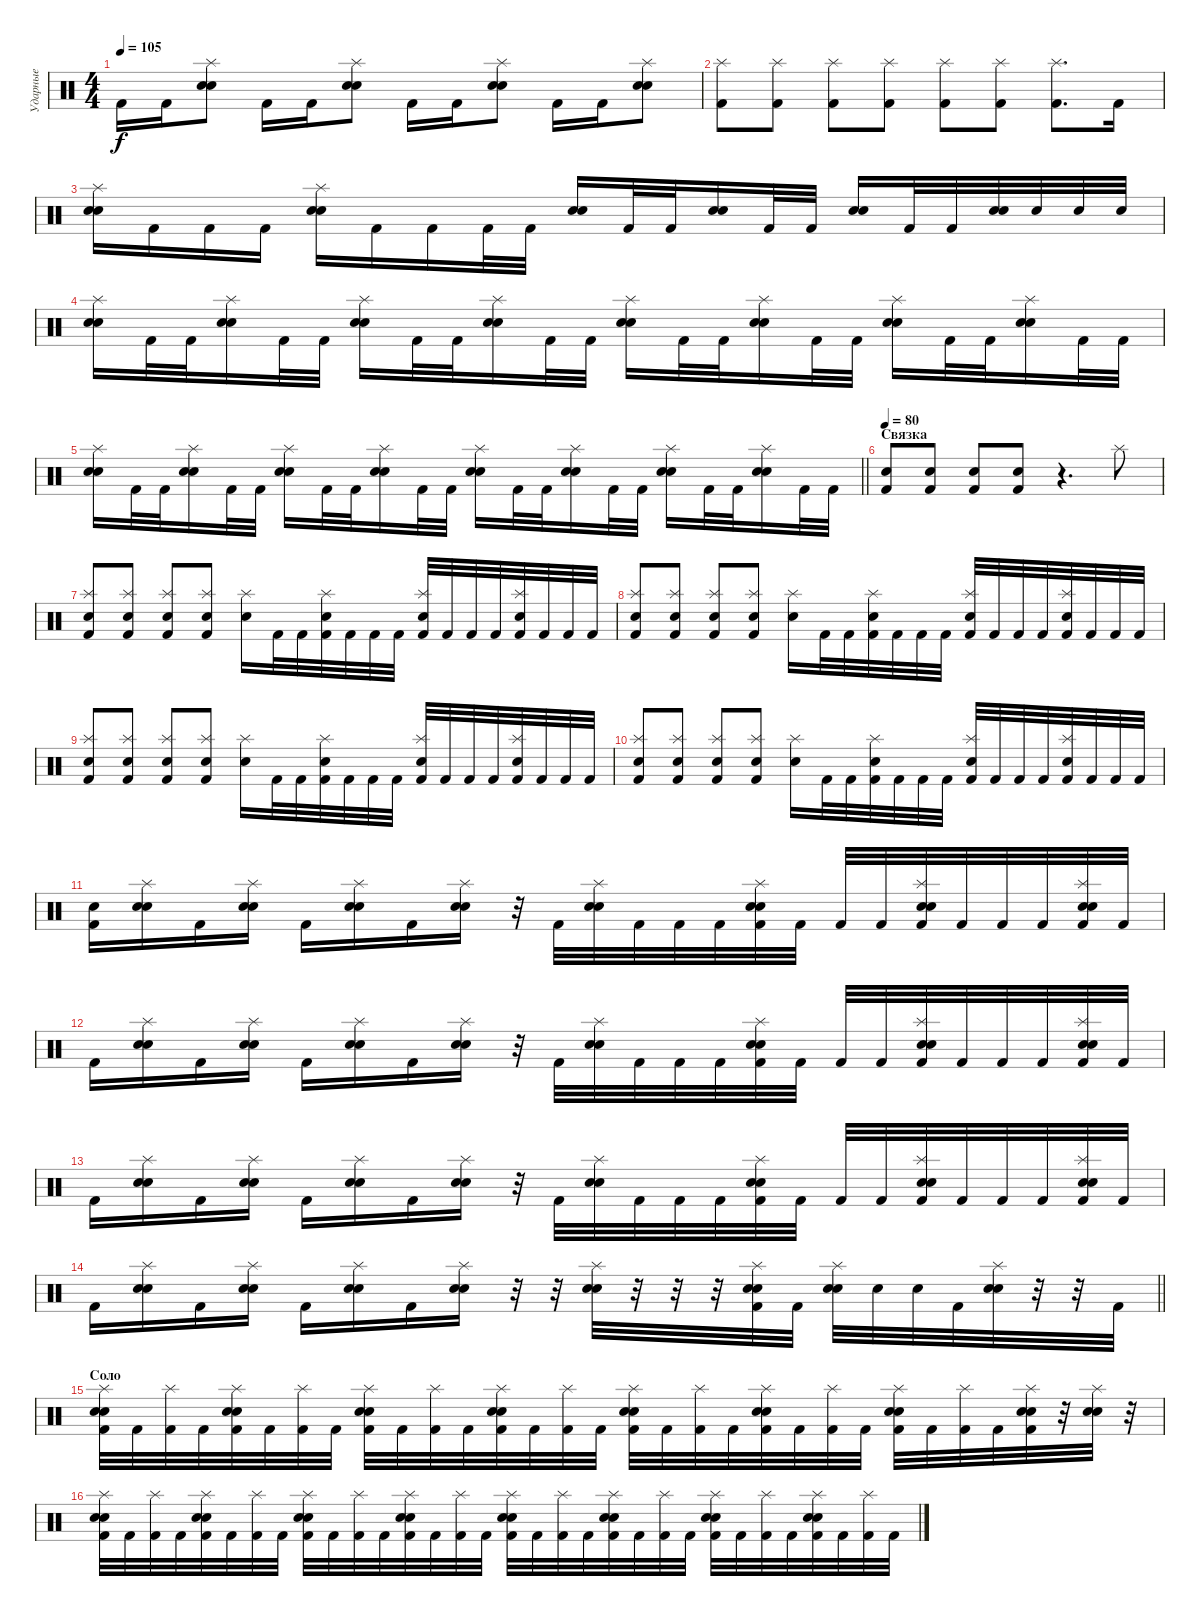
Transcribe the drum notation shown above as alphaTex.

\track ("Ударные" "Ударные") {instrument percussion}
\staff {score}
\articulation defaults
\ts (4 4)
\tempo 105
\clef neutral
\ks c "Kick (hit) 2".16{dy f} "Kick (hit) 2".16
("Splash (hit)" "Electric Snare (hit)" "Snare (hit) 2").8 "Kick (hit) 2".16 "Kick (hit) 2".16 ("Splash (hit)" "Electric Snare (hit)" "Snare (hit) 2").8 "Kick (hit) 2".16 "Kick (hit) 2".16 ("Splash (hit)" "Electric Snare (hit)" "Snare (hit) 2").8 "Kick (hit) 2".16 "Kick (hit) 2".16 ("Splash (hit)" "Electric Snare (hit)" "Snare (hit) 2").8 |
("Splash (hit)" "Kick (hit) 2").8 ("Splash (hit)" "Kick (hit) 2").8 ("Splash (hit)" "Kick (hit) 2").8 ("Splash (hit)" "Kick (hit) 2").8 ("Splash (hit)" "Kick (hit) 2").8 ("Splash (hit)" "Kick (hit) 2").8 ("Splash (hit)" "Kick (hit) 2").8{d} "Kick (hit) 2".16 |
("Splash (hit)" "Electric Snare (hit)" "Snare (hit) 2").16 "Kick (hit) 2".16 "Kick (hit) 2".16 "Kick (hit) 2".16 ("Splash (hit)" "Electric Snare (hit)" "Snare (hit) 2").16 "Kick (hit) 2".16 "Kick (hit) 2".16 "Kick (hit) 2".32 "Kick (hit) 2".32 ("Electric Snare (hit)" "Snare (hit) 2").16 "Kick (hit) 2".32 "Kick (hit) 2".32 ("Electric Snare (hit)" "Snare (hit) 2").16 "Kick (hit) 2".32 "Kick (hit) 2".32 ("Electric Snare (hit)" "Snare (hit) 2").16 "Kick (hit) 2".32 "Kick (hit) 2".32 ("Electric Snare (hit)" "Snare (hit) 2").32 "Electric Snare (hit)".32 "Electric Snare (hit)".32 "Electric Snare (hit)".32 |
("Splash (hit)" "Electric Snare (hit)" "Snare (hit) 2").16 "Kick (hit) 2".32 "Kick (hit) 2".32 ("Splash (hit)" "Electric Snare (hit)" "Snare (hit) 2").16 "Kick (hit) 2".32 "Kick (hit) 2".32 ("Splash (hit)" "Electric Snare (hit)" "Snare (hit) 2").16 "Kick (hit) 2".32 "Kick (hit) 2".32 ("Splash (hit)" "Electric Snare (hit)" "Snare (hit) 2").16 "Kick (hit) 2".32 "Kick (hit) 2".32 ("Splash (hit)" "Electric Snare (hit)" "Snare (hit) 2").16 "Kick (hit) 2".32 "Kick (hit) 2".32 ("Splash (hit)" "Electric Snare (hit)" "Snare (hit) 2").16 "Kick (hit) 2".32 "Kick (hit) 2".32 ("Splash (hit)" "Electric Snare (hit)" "Snare (hit) 2").16 "Kick (hit) 2".32 "Kick (hit) 2".32 ("Splash (hit)" "Electric Snare (hit)" "Snare (hit) 2").16 "Kick (hit) 2".32 "Kick (hit) 2".32 |
\barLineRight lightlight
("Splash (hit)" "Electric Snare (hit)" "Snare (hit) 2").16 "Kick (hit) 2".32 "Kick (hit) 2".32 ("Splash (hit)" "Electric Snare (hit)" "Snare (hit) 2").16 "Kick (hit) 2".32 "Kick (hit) 2".32 ("Splash (hit)" "Electric Snare (hit)" "Snare (hit) 2").16 "Kick (hit) 2".32 "Kick (hit) 2".32 ("Splash (hit)" "Electric Snare (hit)" "Snare (hit) 2").16 "Kick (hit) 2".32 "Kick (hit) 2".32 ("Splash (hit)" "Electric Snare (hit)" "Snare (hit) 2").16 "Kick (hit) 2".32 "Kick (hit) 2".32 ("Splash (hit)" "Electric Snare (hit)" "Snare (hit) 2").16 "Kick (hit) 2".32 "Kick (hit) 2".32 ("Splash (hit)" "Electric Snare (hit)" "Snare (hit) 2").16 "Kick (hit) 2".32 "Kick (hit) 2".32 ("Splash (hit)" "Electric Snare (hit)" "Snare (hit) 2").16 "Kick (hit) 2".32 "Kick (hit) 2".32 |
\section ("" "Связка")
\tempo 80
("Snare (hit) 2" "Kick (hit) 2").8 ("Snare (hit) 2" "Kick (hit) 2").8 ("Snare (hit) 2" "Kick (hit) 2").8 ("Snare (hit) 2" "Kick (hit) 2").8 r.4{d} "Splash (hit)".8 |
("Splash (hit)" "Hand Clap (hit)" "Kick (hit) 2").8 ("Splash (hit)" "Hand Clap (hit)" "Kick (hit) 2").8 ("Splash (hit)" "Hand Clap (hit)" "Kick (hit) 2").8 ("Splash (hit)" "Hand Clap (hit)" "Kick (hit) 2").8 ("Splash (hit)" "Hand Clap (hit)").16 "Kick (hit) 2".32 "Kick (hit) 2".32 ("Splash (hit)" "Hand Clap (hit)" "Kick (hit) 2").32 "Kick (hit) 2".32 "Kick (hit) 2".32 "Kick (hit) 2".32 ("Splash (hit)" "Hand Clap (hit)" "Kick (hit) 2").32 "Kick (hit) 2".32 "Kick (hit) 2".32 "Kick (hit) 2".32 ("Splash (hit)" "Hand Clap (hit)" "Kick (hit) 2").32 "Kick (hit) 2".32 "Kick (hit) 2".32 "Kick (hit) 2".32 |
("Splash (hit)" "Hand Clap (hit)" "Kick (hit) 2").8 ("Splash (hit)" "Hand Clap (hit)" "Kick (hit) 2").8 ("Splash (hit)" "Hand Clap (hit)" "Kick (hit) 2").8 ("Splash (hit)" "Hand Clap (hit)" "Kick (hit) 2").8 ("Splash (hit)" "Hand Clap (hit)").16 "Kick (hit) 2".32 "Kick (hit) 2".32 ("Splash (hit)" "Hand Clap (hit)" "Kick (hit) 2").32 "Kick (hit) 2".32 "Kick (hit) 2".32 "Kick (hit) 2".32 ("Splash (hit)" "Hand Clap (hit)" "Kick (hit) 2").32 "Kick (hit) 2".32 "Kick (hit) 2".32 "Kick (hit) 2".32 ("Splash (hit)" "Hand Clap (hit)" "Kick (hit) 2").32 "Kick (hit) 2".32 "Kick (hit) 2".32 "Kick (hit) 2".32 |
("Splash (hit)" "Hand Clap (hit)" "Kick (hit) 2").8 ("Splash (hit)" "Hand Clap (hit)" "Kick (hit) 2").8 ("Splash (hit)" "Hand Clap (hit)" "Kick (hit) 2").8 ("Splash (hit)" "Hand Clap (hit)" "Kick (hit) 2").8 ("Splash (hit)" "Hand Clap (hit)").16 "Kick (hit) 2".32 "Kick (hit) 2".32 ("Splash (hit)" "Hand Clap (hit)" "Kick (hit) 2").32 "Kick (hit) 2".32 "Kick (hit) 2".32 "Kick (hit) 2".32 ("Splash (hit)" "Hand Clap (hit)" "Kick (hit) 2").32 "Kick (hit) 2".32 "Kick (hit) 2".32 "Kick (hit) 2".32 ("Splash (hit)" "Hand Clap (hit)" "Kick (hit) 2").32 "Kick (hit) 2".32 "Kick (hit) 2".32 "Kick (hit) 2".32 |
("Splash (hit)" "Hand Clap (hit)" "Kick (hit) 2").8 ("Splash (hit)" "Hand Clap (hit)" "Kick (hit) 2").8 ("Splash (hit)" "Hand Clap (hit)" "Kick (hit) 2").8 ("Splash (hit)" "Hand Clap (hit)" "Kick (hit) 2").8 ("Splash (hit)" "Hand Clap (hit)").16 "Kick (hit) 2".32 "Kick (hit) 2".32 ("Splash (hit)" "Hand Clap (hit)" "Kick (hit) 2").32 "Kick (hit) 2".32 "Kick (hit) 2".32 "Kick (hit) 2".32 ("Splash (hit)" "Hand Clap (hit)" "Kick (hit) 2").32 "Kick (hit) 2".32 "Kick (hit) 2".32 "Kick (hit) 2".32 ("Splash (hit)" "Hand Clap (hit)" "Kick (hit) 2").32 "Kick (hit) 2".32 "Kick (hit) 2".32 "Kick (hit) 2".32 |
("Hand Clap (hit)" "Kick (hit) 2").16 ("Splash (hit)" "Electric Snare (hit)" "Snare (hit) 2").16 "Kick (hit) 2".16 ("Splash (hit)" "Electric Snare (hit)" "Snare (hit) 2").16 "Kick (hit) 2".16 ("Splash (hit)" "Electric Snare (hit)" "Snare (hit) 2").16 "Kick (hit) 2".16 ("Splash (hit)" "Electric Snare (hit)" "Snare (hit) 2").16 r.32 "Kick (hit) 2".32 ("Splash (hit)" "Electric Snare (hit)" "Snare (hit) 2").32 "Kick (hit) 2".32 "Kick (hit) 2".32 "Kick (hit) 2".32 ("Splash (hit)" "Electric Snare (hit)" "Snare (hit) 2" "Kick (hit) 2").32 "Kick (hit) 2".32 "Kick (hit) 2".32 "Kick (hit) 2".32 ("Splash (hit)" "Electric Snare (hit)" "Snare (hit) 2" "Kick (hit) 2").32 "Kick (hit) 2".32 "Kick (hit) 2".32 "Kick (hit) 2".32 ("Splash (hit)" "Electric Snare (hit)" "Snare (hit) 2" "Kick (hit) 2").32 "Kick (hit) 2".32 |
"Kick (hit) 2".16 ("Splash (hit)" "Electric Snare (hit)" "Snare (hit) 2").16 "Kick (hit) 2".16 ("Splash (hit)" "Electric Snare (hit)" "Snare (hit) 2").16 "Kick (hit) 2".16 ("Splash (hit)" "Electric Snare (hit)" "Snare (hit) 2").16 "Kick (hit) 2".16 ("Splash (hit)" "Electric Snare (hit)" "Snare (hit) 2").16 r.32 "Kick (hit) 2".32 ("Splash (hit)" "Electric Snare (hit)" "Snare (hit) 2").32 "Kick (hit) 2".32 "Kick (hit) 2".32 "Kick (hit) 2".32 ("Splash (hit)" "Electric Snare (hit)" "Snare (hit) 2" "Kick (hit) 2").32 "Kick (hit) 2".32 "Kick (hit) 2".32 "Kick (hit) 2".32 ("Splash (hit)" "Electric Snare (hit)" "Snare (hit) 2" "Kick (hit) 2").32 "Kick (hit) 2".32 "Kick (hit) 2".32 "Kick (hit) 2".32 ("Splash (hit)" "Electric Snare (hit)" "Snare (hit) 2" "Kick (hit) 2").32 "Kick (hit) 2".32 |
"Kick (hit) 2".16 ("Splash (hit)" "Electric Snare (hit)" "Snare (hit) 2").16 "Kick (hit) 2".16 ("Splash (hit)" "Electric Snare (hit)" "Snare (hit) 2").16 "Kick (hit) 2".16 ("Splash (hit)" "Electric Snare (hit)" "Snare (hit) 2").16 "Kick (hit) 2".16 ("Splash (hit)" "Electric Snare (hit)" "Snare (hit) 2").16 r.32 "Kick (hit) 2".32 ("Splash (hit)" "Electric Snare (hit)" "Snare (hit) 2").32 "Kick (hit) 2".32 "Kick (hit) 2".32 "Kick (hit) 2".32 ("Splash (hit)" "Electric Snare (hit)" "Snare (hit) 2" "Kick (hit) 2").32 "Kick (hit) 2".32 "Kick (hit) 2".32 "Kick (hit) 2".32 ("Splash (hit)" "Electric Snare (hit)" "Snare (hit) 2" "Kick (hit) 2").32 "Kick (hit) 2".32 "Kick (hit) 2".32 "Kick (hit) 2".32 ("Splash (hit)" "Electric Snare (hit)" "Snare (hit) 2" "Kick (hit) 2").32 "Kick (hit) 2".32 |
\barLineRight lightlight "Kick (hit) 2".16
("Splash (hit)" "Electric Snare (hit)" "Snare (hit) 2").16 "Kick (hit) 2".16 ("Splash (hit)" "Electric Snare (hit)" "Snare (hit) 2").16 "Kick (hit) 2".16 ("Splash (hit)" "Electric Snare (hit)" "Snare (hit) 2").16 "Kick (hit) 2".16 ("Splash (hit)" "Electric Snare (hit)" "Snare (hit) 2").16 r.32 r.32 ("Splash (hit)" "Electric Snare (hit)" "Snare (hit) 2").32 r.32 r.32 r.32 ("Splash (hit)" "Electric Snare (hit)" "Snare (hit) 2" "Kick (hit) 2").32 "Kick (hit) 2".32 ("Splash (hit)" "Electric Snare (hit)" "Snare (hit) 2").32 "Electric Snare (hit)".32 "Electric Snare (hit)".32 "Kick (hit) 2".32 ("Splash (hit)" "Electric Snare (hit)" "Snare (hit) 2").32 r.32 r.32 "Kick (hit) 2".32 |
\section ("" "Соло")
("Splash (hit)" "Electric Snare (hit)" "Snare (hit) 2" "Kick (hit) 2").32 "Kick (hit) 2".32 ("Splash (hit)" "Kick (hit) 2").32 "Kick (hit) 2".32 ("Splash (hit)" "Electric Snare (hit)" "Snare (hit) 2" "Kick (hit) 2").32 "Kick (hit) 2".32 ("Splash (hit)" "Kick (hit) 2").32 "Kick (hit) 2".32 ("Splash (hit)" "Electric Snare (hit)" "Snare (hit) 2" "Kick (hit) 2").32 "Kick (hit) 2".32 ("Splash (hit)" "Kick (hit) 2").32 "Kick (hit) 2".32 ("Splash (hit)" "Electric Snare (hit)" "Snare (hit) 2" "Kick (hit) 2").32 "Kick (hit) 2".32 ("Splash (hit)" "Kick (hit) 2").32 "Kick (hit) 2".32 ("Splash (hit)" "Electric Snare (hit)" "Snare (hit) 2" "Kick (hit) 2").32 "Kick (hit) 2".32 ("Splash (hit)" "Kick (hit) 2").32 "Kick (hit) 2".32 ("Splash (hit)" "Electric Snare (hit)" "Snare (hit) 2" "Kick (hit) 2").32 "Kick (hit) 2".32 ("Splash (hit)" "Kick (hit) 2").32 "Kick (hit) 2".32 ("Splash (hit)" "Electric Snare (hit)" "Snare (hit) 2" "Kick (hit) 2").32 "Kick (hit) 2".32 ("Splash (hit)" "Kick (hit) 2").32 "Kick (hit) 2".32 ("Splash (hit)" "Electric Snare (hit)" "Snare (hit) 2" "Kick (hit) 2").32 r.32 ("Splash (hit)" "Electric Snare (hit)" "Snare (hit) 2").32 r.32 |
("Splash (hit)" "Electric Snare (hit)" "Snare (hit) 2" "Kick (hit) 2").32 "Kick (hit) 2".32 ("Splash (hit)" "Kick (hit) 2").32 "Kick (hit) 2".32 ("Splash (hit)" "Electric Snare (hit)" "Snare (hit) 2" "Kick (hit) 2").32 "Kick (hit) 2".32 ("Splash (hit)" "Kick (hit) 2").32 "Kick (hit) 2".32 ("Splash (hit)" "Electric Snare (hit)" "Snare (hit) 2" "Kick (hit) 2").32 "Kick (hit) 2".32 ("Splash (hit)" "Kick (hit) 2").32 "Kick (hit) 2".32 ("Splash (hit)" "Electric Snare (hit)" "Snare (hit) 2" "Kick (hit) 2").32 "Kick (hit) 2".32 ("Splash (hit)" "Kick (hit) 2").32 "Kick (hit) 2".32 ("Splash (hit)" "Electric Snare (hit)" "Snare (hit) 2" "Kick (hit) 2").32 "Kick (hit) 2".32 ("Splash (hit)" "Kick (hit) 2").32 "Kick (hit) 2".32 ("Splash (hit)" "Electric Snare (hit)" "Snare (hit) 2" "Kick (hit) 2").32 "Kick (hit) 2".32 ("Splash (hit)" "Kick (hit) 2").32 "Kick (hit) 2".32 ("Splash (hit)" "Electric Snare (hit)" "Snare (hit) 2" "Kick (hit) 2").32 "Kick (hit) 2".32 ("Splash (hit)" "Kick (hit) 2").32 "Kick (hit) 2".32 ("Splash (hit)" "Electric Snare (hit)" "Snare (hit) 2" "Kick (hit) 2").32 "Kick (hit) 2".32 ("Splash (hit)" "Kick (hit) 2").32 "Kick (hit) 2".32
